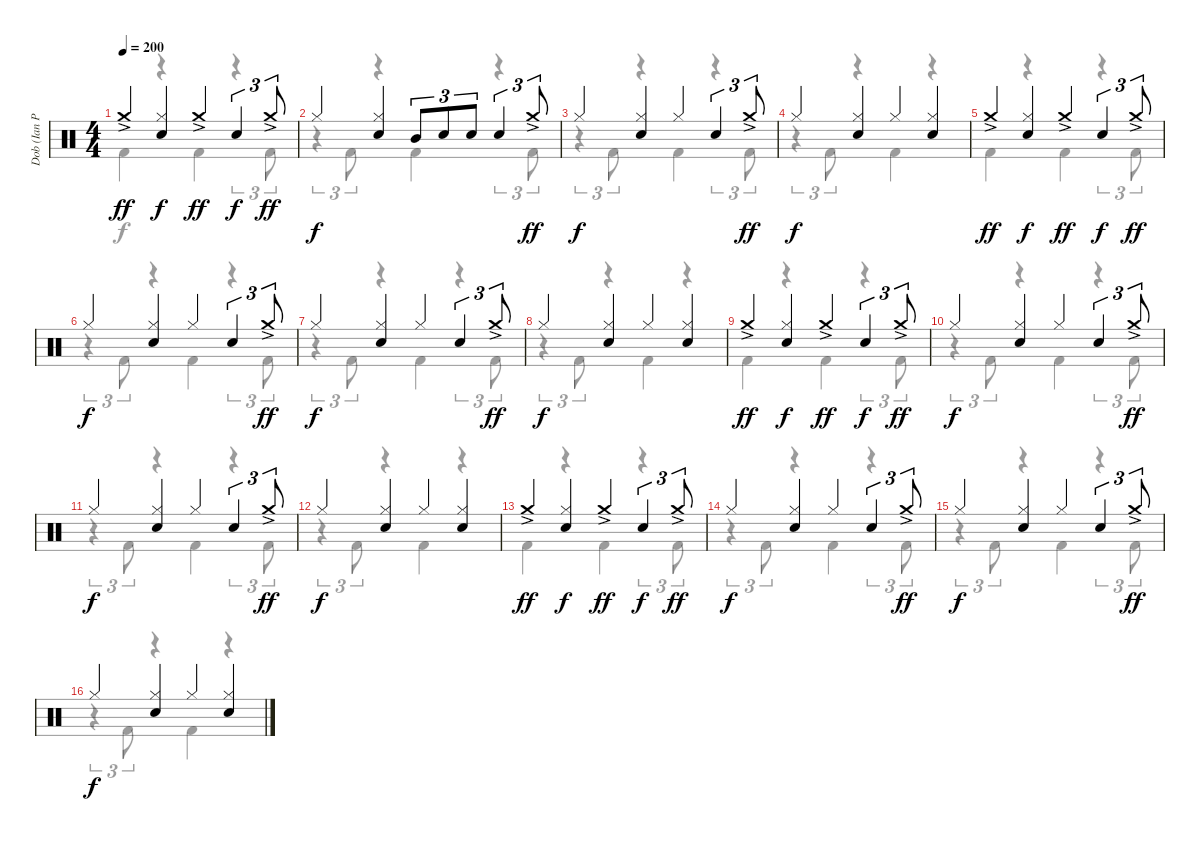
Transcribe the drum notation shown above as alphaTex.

\track ("Dob (Ian Paice)" "Dob (Ian P") {instrument percussion}
\staff {score}
\articulation defaults
\voice
\ts (4 4)
\tempo 200
\clef neutral
\ks c "Crash medium (hit)"{ac}.4{dy ff}
("Hi-Hat (closed)" "Electric Snare (hit)").4{dy f} "Crash medium (hit)"{ac}.4{dy ff} "Electric Snare (hit)".4{tu (3 2) dy f} "Crash medium (hit)"{ac}.8{tu (3 2) dy ff} |
"Hi-Hat (closed)".4{dy f} ("Hi-Hat (closed)" "Electric Snare (hit)").4 "Mid Tom (hit)".8{tu (3 2)} "Electric Snare (hit)".8{tu (3 2)} "Electric Snare (hit)".8{tu (3 2)} "Electric Snare (hit)".4{tu (3 2)} "Crash medium (hit)"{ac}.8{tu (3 2) dy ff} |
"Hi-Hat (closed)".4{dy f} ("Hi-Hat (closed)" "Electric Snare (hit)").4 "Hi-Hat (closed)".4 "Electric Snare (hit)".4{tu (3 2)} "Crash medium (hit)"{ac}.8{tu (3 2) dy ff} |
"Hi-Hat (closed)".4{dy f} ("Hi-Hat (closed)" "Electric Snare (hit)").4 "Hi-Hat (closed)".4 ("Hi-Hat (closed)" "Electric Snare (hit)").4 |
"Crash medium (hit)"{ac}.4{dy ff} ("Hi-Hat (closed)" "Electric Snare (hit)").4{dy f} "Crash medium (hit)"{ac}.4{dy ff} "Electric Snare (hit)".4{tu (3 2) dy f} "Crash medium (hit)"{ac}.8{tu (3 2) dy ff} |
"Hi-Hat (closed)".4{dy f} ("Hi-Hat (closed)" "Electric Snare (hit)").4 "Hi-Hat (closed)".4 "Electric Snare (hit)".4{tu (3 2)} "Crash medium (hit)"{ac}.8{tu (3 2) dy ff} |
"Hi-Hat (closed)".4{dy f} ("Hi-Hat (closed)" "Electric Snare (hit)").4 "Hi-Hat (closed)".4 "Electric Snare (hit)".4{tu (3 2)} "Crash medium (hit)"{ac}.8{tu (3 2) dy ff} |
"Hi-Hat (closed)".4{dy f} ("Hi-Hat (closed)" "Electric Snare (hit)").4 "Hi-Hat (closed)".4 ("Hi-Hat (closed)" "Electric Snare (hit)").4 |
"Crash medium (hit)"{ac}.4{dy ff} ("Hi-Hat (closed)" "Electric Snare (hit)").4{dy f} "Crash medium (hit)"{ac}.4{dy ff} "Electric Snare (hit)".4{tu (3 2) dy f} "Crash medium (hit)"{ac}.8{tu (3 2) dy ff} |
"Hi-Hat (closed)".4{dy f} ("Hi-Hat (closed)" "Electric Snare (hit)").4 "Hi-Hat (closed)".4 "Electric Snare (hit)".4{tu (3 2)} "Crash medium (hit)"{ac}.8{tu (3 2) dy ff} |
"Hi-Hat (closed)".4{dy f} ("Hi-Hat (closed)" "Electric Snare (hit)").4 "Hi-Hat (closed)".4 "Electric Snare (hit)".4{tu (3 2)} "Crash medium (hit)"{ac}.8{tu (3 2) dy ff} |
"Hi-Hat (closed)".4{dy f} ("Hi-Hat (closed)" "Electric Snare (hit)").4 "Hi-Hat (closed)".4 ("Hi-Hat (closed)" "Electric Snare (hit)").4 |
"Crash medium (hit)"{ac}.4{dy ff} ("Hi-Hat (closed)" "Electric Snare (hit)").4{dy f} "Crash medium (hit)"{ac}.4{dy ff} "Electric Snare (hit)".4{tu (3 2) dy f} "Crash medium (hit)"{ac}.8{tu (3 2) dy ff} |
"Hi-Hat (closed)".4{dy f} ("Hi-Hat (closed)" "Electric Snare (hit)").4 "Hi-Hat (closed)".4 "Electric Snare (hit)".4{tu (3 2)} "Crash medium (hit)"{ac}.8{tu (3 2) dy ff} |
"Hi-Hat (closed)".4{dy f} ("Hi-Hat (closed)" "Electric Snare (hit)").4 "Hi-Hat (closed)".4 "Electric Snare (hit)".4{tu (3 2)} "Crash medium (hit)"{ac}.8{tu (3 2) dy ff} |
"Hi-Hat (closed)".4{dy f} ("Hi-Hat (closed)" "Electric Snare (hit)").4 "Hi-Hat (closed)".4 ("Hi-Hat (closed)" "Electric Snare (hit)").4
\voice
\clef neutral
\ottava regular
\simile none
\ks c "Kick (hit) 2".4{dy f}
r.4 "Kick (hit) 2".4 r.4{tu (3 2)} "Kick (hit) 2".8{tu (3 2)} |
r.4{tu (3 2)} "Kick (hit) 2".8{tu (3 2)} r.4 "Kick (hit) 2".4 r.4{tu (3 2)} "Kick (hit) 2".8{tu (3 2)} |
r.4{tu (3 2)} "Kick (hit) 2".8{tu (3 2)} r.4 "Kick (hit) 2".4 r.4{tu (3 2)} "Kick (hit) 2".8{tu (3 2)} |
r.4{tu (3 2)} "Kick (hit) 2".8{tu (3 2)} r.4 "Kick (hit) 2".4 r.4 |
"Kick (hit) 2".4 r.4 "Kick (hit) 2".4 r.4{tu (3 2)} "Kick (hit) 2".8{tu (3 2)} |
r.4{tu (3 2)} "Kick (hit) 2".8{tu (3 2)} r.4 "Kick (hit) 2".4 r.4{tu (3 2)} "Kick (hit) 2".8{tu (3 2)} |
r.4{tu (3 2)} "Kick (hit) 2".8{tu (3 2)} r.4 "Kick (hit) 2".4 r.4{tu (3 2)} "Kick (hit) 2".8{tu (3 2)} |
r.4{tu (3 2)} "Kick (hit) 2".8{tu (3 2)} r.4 "Kick (hit) 2".4 r.4 |
"Kick (hit) 2".4 r.4 "Kick (hit) 2".4 r.4{tu (3 2)} "Kick (hit) 2".8{tu (3 2)} |
r.4{tu (3 2)} "Kick (hit) 2".8{tu (3 2)} r.4 "Kick (hit) 2".4 r.4{tu (3 2)} "Kick (hit) 2".8{tu (3 2)} |
r.4{tu (3 2)} "Kick (hit) 2".8{tu (3 2)} r.4 "Kick (hit) 2".4 r.4{tu (3 2)} "Kick (hit) 2".8{tu (3 2)} |
r.4{tu (3 2)} "Kick (hit) 2".8{tu (3 2)} r.4 "Kick (hit) 2".4 r.4 |
"Kick (hit) 2".4 r.4 "Kick (hit) 2".4 r.4{tu (3 2)} "Kick (hit) 2".8{tu (3 2)} |
r.4{tu (3 2)} "Kick (hit) 2".8{tu (3 2)} r.4 "Kick (hit) 2".4 r.4{tu (3 2)} "Kick (hit) 2".8{tu (3 2)} |
r.4{tu (3 2)} "Kick (hit) 2".8{tu (3 2)} r.4 "Kick (hit) 2".4 r.4{tu (3 2)} "Kick (hit) 2".8{tu (3 2)} |
r.4{tu (3 2)} "Kick (hit) 2".8{tu (3 2)} r.4 "Kick (hit) 2".4 r.4
